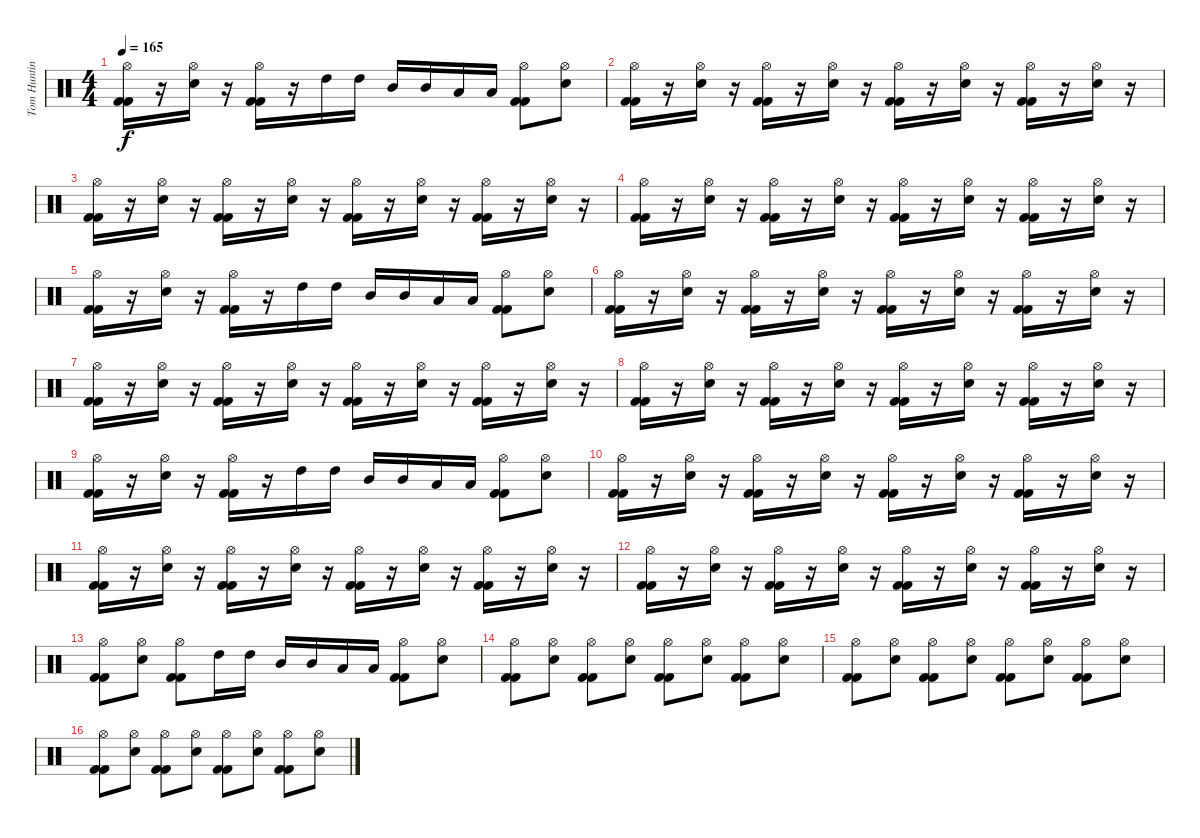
\track ("Tom Hunting" "Tom Huntin") {instrument percussion}
\staff {score}
\articulation defaults
\ts (4 4)
\tempo 165
\clef neutral
\ks c
("Kick (hit) 2" "Kick (hit) 2" "Hi-Hat (open)").16{dy f} r.16 ("Electric Snare (hit)" "Hi-Hat (open)").16 r.16 ("Kick (hit) 2" "Kick (hit) 2" "Hi-Hat (open)").16 r.16 "High Tom (hit)".16 "High Tom (hit)".16 "Mid Tom (hit)".16 "Mid Tom (hit)".16 "Low Tom (hit)".16 "Low Tom (hit)".16 ("Kick (hit) 2" "Kick (hit) 2" "Hi-Hat (open)").8 ("Electric Snare (hit)" "Hi-Hat (open)").8 |
("Kick (hit) 2" "Kick (hit) 2" "Hi-Hat (open)").16 r.16 ("Electric Snare (hit)" "Hi-Hat (open)").16 r.16 ("Kick (hit) 2" "Kick (hit) 2" "Hi-Hat (open)").16 r.16 ("Electric Snare (hit)" "Hi-Hat (open)").16 r.16 ("Kick (hit) 2" "Kick (hit) 2" "Hi-Hat (open)").16 r.16 ("Electric Snare (hit)" "Hi-Hat (open)").16 r.16 ("Kick (hit) 2" "Kick (hit) 2" "Hi-Hat (open)").16 r.16 ("Electric Snare (hit)" "Hi-Hat (open)").16 r.16 |
("Kick (hit) 2" "Kick (hit) 2" "Hi-Hat (open)").16 r.16 ("Electric Snare (hit)" "Hi-Hat (open)").16 r.16 ("Kick (hit) 2" "Kick (hit) 2" "Hi-Hat (open)").16 r.16 ("Electric Snare (hit)" "Hi-Hat (open)").16 r.16 ("Kick (hit) 2" "Kick (hit) 2" "Hi-Hat (open)").16 r.16 ("Electric Snare (hit)" "Hi-Hat (open)").16 r.16 ("Kick (hit) 2" "Kick (hit) 2" "Hi-Hat (open)").16 r.16 ("Electric Snare (hit)" "Hi-Hat (open)").16 r.16 |
("Kick (hit) 2" "Kick (hit) 2" "Hi-Hat (open)").16 r.16 ("Electric Snare (hit)" "Hi-Hat (open)").16 r.16 ("Kick (hit) 2" "Kick (hit) 2" "Hi-Hat (open)").16 r.16 ("Electric Snare (hit)" "Hi-Hat (open)").16 r.16 ("Kick (hit) 2" "Kick (hit) 2" "Hi-Hat (open)").16 r.16 ("Electric Snare (hit)" "Hi-Hat (open)").16 r.16 ("Kick (hit) 2" "Kick (hit) 2" "Hi-Hat (open)").16 r.16 ("Electric Snare (hit)" "Hi-Hat (open)").16 r.16 |
("Kick (hit) 2" "Kick (hit) 2" "Hi-Hat (open)").16 r.16 ("Electric Snare (hit)" "Hi-Hat (open)").16 r.16 ("Kick (hit) 2" "Kick (hit) 2" "Hi-Hat (open)").16 r.16 "High Tom (hit)".16 "High Tom (hit)".16 "Mid Tom (hit)".16 "Mid Tom (hit)".16 "Low Tom (hit)".16 "Low Tom (hit)".16 ("Kick (hit) 2" "Kick (hit) 2" "Hi-Hat (open)").8 ("Electric Snare (hit)" "Hi-Hat (open)").8 |
("Kick (hit) 2" "Kick (hit) 2" "Hi-Hat (open)").16 r.16 ("Electric Snare (hit)" "Hi-Hat (open)").16 r.16 ("Kick (hit) 2" "Kick (hit) 2" "Hi-Hat (open)").16 r.16 ("Electric Snare (hit)" "Hi-Hat (open)").16 r.16 ("Kick (hit) 2" "Kick (hit) 2" "Hi-Hat (open)").16 r.16 ("Electric Snare (hit)" "Hi-Hat (open)").16 r.16 ("Kick (hit) 2" "Kick (hit) 2" "Hi-Hat (open)").16 r.16 ("Electric Snare (hit)" "Hi-Hat (open)").16 r.16 |
("Kick (hit) 2" "Kick (hit) 2" "Hi-Hat (open)").16 r.16 ("Electric Snare (hit)" "Hi-Hat (open)").16 r.16 ("Kick (hit) 2" "Kick (hit) 2" "Hi-Hat (open)").16 r.16 ("Electric Snare (hit)" "Hi-Hat (open)").16 r.16 ("Kick (hit) 2" "Kick (hit) 2" "Hi-Hat (open)").16 r.16 ("Electric Snare (hit)" "Hi-Hat (open)").16 r.16 ("Kick (hit) 2" "Kick (hit) 2" "Hi-Hat (open)").16 r.16 ("Electric Snare (hit)" "Hi-Hat (open)").16 r.16 |
("Kick (hit) 2" "Kick (hit) 2" "Hi-Hat (open)").16 r.16 ("Electric Snare (hit)" "Hi-Hat (open)").16 r.16 ("Kick (hit) 2" "Kick (hit) 2" "Hi-Hat (open)").16 r.16 ("Electric Snare (hit)" "Hi-Hat (open)").16 r.16 ("Kick (hit) 2" "Kick (hit) 2" "Hi-Hat (open)").16 r.16 ("Electric Snare (hit)" "Hi-Hat (open)").16 r.16 ("Kick (hit) 2" "Kick (hit) 2" "Hi-Hat (open)").16 r.16 ("Electric Snare (hit)" "Hi-Hat (open)").16 r.16 |
("Kick (hit) 2" "Kick (hit) 2" "Hi-Hat (open)").16 r.16 ("Electric Snare (hit)" "Hi-Hat (open)").16 r.16 ("Kick (hit) 2" "Kick (hit) 2" "Hi-Hat (open)").16 r.16 "High Tom (hit)".16 "High Tom (hit)".16 "Mid Tom (hit)".16 "Mid Tom (hit)".16 "Low Tom (hit)".16 "Low Tom (hit)".16 ("Kick (hit) 2" "Kick (hit) 2" "Hi-Hat (open)").8 ("Electric Snare (hit)" "Hi-Hat (open)").8 |
("Kick (hit) 2" "Kick (hit) 2" "Hi-Hat (open)").16 r.16 ("Electric Snare (hit)" "Hi-Hat (open)").16 r.16 ("Kick (hit) 2" "Kick (hit) 2" "Hi-Hat (open)").16 r.16 ("Electric Snare (hit)" "Hi-Hat (open)").16 r.16 ("Kick (hit) 2" "Kick (hit) 2" "Hi-Hat (open)").16 r.16 ("Electric Snare (hit)" "Hi-Hat (open)").16 r.16 ("Kick (hit) 2" "Kick (hit) 2" "Hi-Hat (open)").16 r.16 ("Electric Snare (hit)" "Hi-Hat (open)").16 r.16 |
("Kick (hit) 2" "Kick (hit) 2" "Hi-Hat (open)").16 r.16 ("Electric Snare (hit)" "Hi-Hat (open)").16 r.16 ("Kick (hit) 2" "Kick (hit) 2" "Hi-Hat (open)").16 r.16 ("Electric Snare (hit)" "Hi-Hat (open)").16 r.16 ("Kick (hit) 2" "Kick (hit) 2" "Hi-Hat (open)").16 r.16 ("Electric Snare (hit)" "Hi-Hat (open)").16 r.16 ("Kick (hit) 2" "Kick (hit) 2" "Hi-Hat (open)").16 r.16 ("Electric Snare (hit)" "Hi-Hat (open)").16 r.16 |
("Kick (hit) 2" "Kick (hit) 2" "Hi-Hat (open)").16 r.16 ("Electric Snare (hit)" "Hi-Hat (open)").16 r.16 ("Kick (hit) 2" "Kick (hit) 2" "Hi-Hat (open)").16 r.16 ("Electric Snare (hit)" "Hi-Hat (open)").16 r.16 ("Kick (hit) 2" "Kick (hit) 2" "Hi-Hat (open)").16 r.16 ("Electric Snare (hit)" "Hi-Hat (open)").16 r.16 ("Kick (hit) 2" "Kick (hit) 2" "Hi-Hat (open)").16 r.16 ("Electric Snare (hit)" "Hi-Hat (open)").16 r.16 |
("Kick (hit) 2" "Kick (hit) 2" "Hi-Hat (open)").8 ("Electric Snare (hit)" "Hi-Hat (open)").8 ("Kick (hit) 2" "Kick (hit) 2" "Hi-Hat (open)").8 "High Tom (hit)".16 "High Tom (hit)".16 "Mid Tom (hit)".16 "Mid Tom (hit)".16 "Low Tom (hit)".16 "Low Tom (hit)".16 ("Kick (hit) 2" "Kick (hit) 2" "Hi-Hat (open)").8 ("Electric Snare (hit)" "Hi-Hat (open)").8 |
("Kick (hit) 2" "Kick (hit) 2" "Hi-Hat (open)").8 ("Electric Snare (hit)" "Hi-Hat (open)").8 ("Kick (hit) 2" "Kick (hit) 2" "Hi-Hat (open)").8 ("Electric Snare (hit)" "Hi-Hat (open)").8 ("Kick (hit) 2" "Kick (hit) 2" "Hi-Hat (open)").8 ("Electric Snare (hit)" "Hi-Hat (open)").8 ("Kick (hit) 2" "Kick (hit) 2" "Hi-Hat (open)").8 ("Electric Snare (hit)" "Hi-Hat (open)").8 |
("Kick (hit) 2" "Kick (hit) 2" "Hi-Hat (open)").8 ("Electric Snare (hit)" "Hi-Hat (open)").8 ("Kick (hit) 2" "Kick (hit) 2" "Hi-Hat (open)").8 ("Electric Snare (hit)" "Hi-Hat (open)").8 ("Kick (hit) 2" "Kick (hit) 2" "Hi-Hat (open)").8 ("Electric Snare (hit)" "Hi-Hat (open)").8 ("Kick (hit) 2" "Kick (hit) 2" "Hi-Hat (open)").8 ("Electric Snare (hit)" "Hi-Hat (open)").8 |
("Kick (hit) 2" "Kick (hit) 2" "Hi-Hat (open)").8 ("Electric Snare (hit)" "Hi-Hat (open)").8 ("Kick (hit) 2" "Kick (hit) 2" "Hi-Hat (open)").8 ("Electric Snare (hit)" "Hi-Hat (open)").8 ("Kick (hit) 2" "Kick (hit) 2" "Hi-Hat (open)").8 ("Electric Snare (hit)" "Hi-Hat (open)").8 ("Kick (hit) 2" "Kick (hit) 2" "Hi-Hat (open)").8 ("Electric Snare (hit)" "Hi-Hat (open)").8
